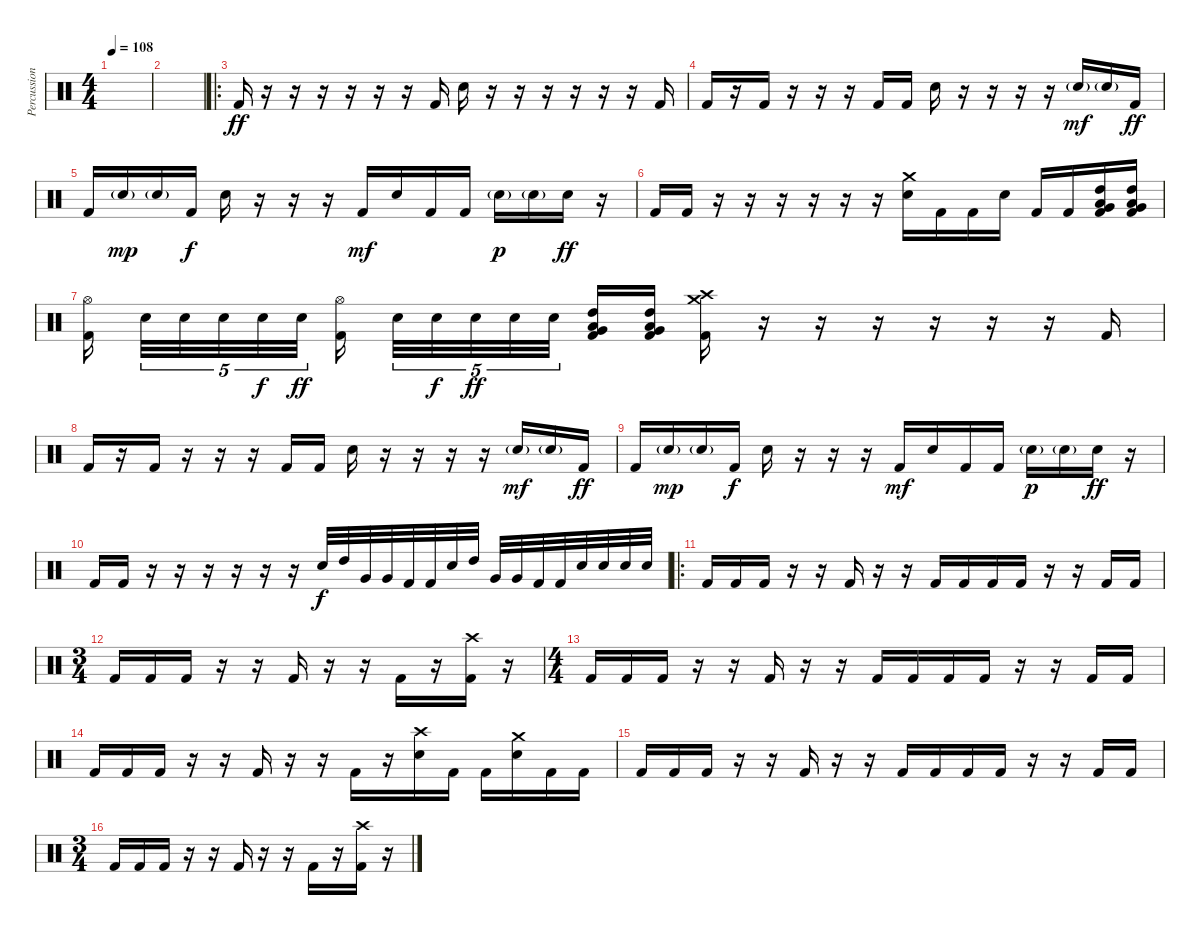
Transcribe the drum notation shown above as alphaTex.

\track ("Percussion" "Percussion") {instrument percussion}
\staff {score}
\articulation defaults
\ts (4 4)
\tempo 108
\clef neutral
\ks c
|
|
\ro "Kick (hit) 2".16{dy ff}
r.16 r.16 r.16 r.16 r.16 r.16 "Kick (hit) 2".16 "Electric Snare (hit)".16 r.16 r.16 r.16 r.16 r.16 r.16 "Kick (hit) 2".16 |
"Kick (hit) 2".16 r.16 "Kick (hit) 2".16 r.16 r.16 r.16 "Kick (hit) 2".16 "Kick (hit) 2".16 "Electric Snare (hit)".16 r.16 r.16 r.16 r.16 "Electric Snare (hit)"{g}.16{dy mf} "Electric Snare (hit)"{g}.16 "Kick (hit) 2".16{dy ff} |
"Kick (hit) 2".16 "Electric Snare (hit)"{g}.16{dy mp} "Electric Snare (hit)"{g}.16 "Kick (hit) 2".16{dy f} "Electric Snare (hit)".16 r.16 r.16 r.16 "Kick (hit) 2".16{dy mf} "Electric Snare (hit)".16 "Kick (hit) 2".16 "Kick (hit) 2".16 "Electric Snare (hit)"{g}.16{dy p} "Electric Snare (hit)"{g}.16 "Electric Snare (hit)".16{dy ff} r.16 |
"Kick (hit) 2".16 "Kick (hit) 2".16 r.16 r.16 r.16 r.16 r.16 r.16 ("Crash medium (hit)" "Electric Snare (hit)").16 "Kick (hit) 2".16 "Kick (hit) 2".16 "Electric Snare (hit)".16 "Kick (hit) 2".16 "Kick (hit) 2".16 ("High Tom (hit)" "Low Tom (hit)" "Very Low Tom (hit)" "Kick (hit) 2").16 ("High Tom (hit)" "Low Tom (hit)" "Very Low Tom (hit)" "Kick (hit) 2").16 |
("Hi-Hat (open)" "Kick (hit) 2").16{beam splitsecondary} "Electric Snare (hit)".32{tu (5 4)} "Electric Snare (hit)".32{tu (5 4)} "Electric Snare (hit)".32{tu (5 4)} "Electric Snare (hit)".32{tu (5 4) dy f} "Electric Snare (hit)".32{tu (5 4) dy ff beam splitsecondary} ("Hi-Hat (open)" "Kick (hit) 2").16 "Electric Snare (hit)".32{tu (5 4)} "Electric Snare (hit)".32{tu (5 4) dy f} "Electric Snare (hit)".32{tu (5 4) dy ff} "Electric Snare (hit)".32{tu (5 4)} "Electric Snare (hit)".32{tu (5 4) beam splitsecondary} ("High Tom (hit)" "Very Low Tom (hit)" "Low Tom (hit)" "Kick (hit) 2").16 ("High Tom (hit)" "Very Low Tom (hit)" "Low Tom (hit)" "Kick (hit) 2").16 ("Crash medium (hit)" "Crash high (hit)" "Kick (hit) 2").16 r.16 r.16 r.16 r.16 r.16 r.16 "Kick (hit) 2".16 |
"Kick (hit) 2".16 r.16 "Kick (hit) 2".16 r.16 r.16 r.16 "Kick (hit) 2".16 "Kick (hit) 2".16 "Electric Snare (hit)".16 r.16 r.16 r.16 r.16 "Electric Snare (hit)"{g}.16{dy mf} "Electric Snare (hit)"{g}.16 "Kick (hit) 2".16{dy ff} |
"Kick (hit) 2".16 "Electric Snare (hit)"{g}.16{dy mp} "Electric Snare (hit)"{g}.16 "Kick (hit) 2".16{dy f} "Electric Snare (hit)".16 r.16 r.16 r.16 "Kick (hit) 2".16{dy mf} "Electric Snare (hit)".16 "Kick (hit) 2".16 "Kick (hit) 2".16 "Electric Snare (hit)"{g}.16{dy p} "Electric Snare (hit)"{g}.16 "Electric Snare (hit)".16{dy ff} r.16 |
"Kick (hit) 2".16 "Kick (hit) 2".16 r.16 r.16 r.16 r.16 r.16 r.16 "Electric Snare (hit)".32{dy f} "High Tom (hit)".32 "Very Low Tom (hit)".32 "Very Low Tom (hit)".32 "Kick (hit) 2".32 "Kick (hit) 2".32 "Electric Snare (hit)".32 "High Tom (hit)".32 "Very Low Tom (hit)".32 "Very Low Tom (hit)".32 "Kick (hit) 2".32 "Kick (hit) 2".32 "Electric Snare (hit)".32 "Electric Snare (hit)".32 "Electric Snare (hit)".32 "Electric Snare (hit)".32 |
\ro "Kick (hit) 2".16 "Kick (hit) 2".16 "Kick (hit) 2".16
r.16 r.16 "Kick (hit) 2".16 r.16 r.16 "Kick (hit) 2".16 "Kick (hit) 2".16 "Kick (hit) 2".16 "Kick (hit) 2".16 r.16 r.16 "Kick (hit) 2".16 "Kick (hit) 2".16 |
\ts (3 4)
"Kick (hit) 2".16 "Kick (hit) 2".16 "Kick (hit) 2".16 r.16 r.16 "Kick (hit) 2".16 r.16 r.16 "Kick (hit) 2".16 r.16 ("Crash high (hit)" "Kick (hit) 2").16 r.16 |
\ts (4 4)
"Kick (hit) 2".16 "Kick (hit) 2".16 "Kick (hit) 2".16 r.16 r.16 "Kick (hit) 2".16 r.16 r.16 "Kick (hit) 2".16 "Kick (hit) 2".16 "Kick (hit) 2".16 "Kick (hit) 2".16 r.16 r.16 "Kick (hit) 2".16 "Kick (hit) 2".16 |
"Kick (hit) 2".16 "Kick (hit) 2".16 "Kick (hit) 2".16 r.16 r.16 "Kick (hit) 2".16 r.16 r.16 "Kick (hit) 2".16 r.16 ("Crash high (hit)" "Electric Snare (hit)").16 "Kick (hit) 2".16 "Kick (hit) 2".16 ("Crash medium (hit)" "Electric Snare (hit)").16 "Kick (hit) 2".16 "Kick (hit) 2".16 |
"Kick (hit) 2".16 "Kick (hit) 2".16 "Kick (hit) 2".16 r.16 r.16 "Kick (hit) 2".16 r.16 r.16 "Kick (hit) 2".16 "Kick (hit) 2".16 "Kick (hit) 2".16 "Kick (hit) 2".16 r.16 r.16 "Kick (hit) 2".16 "Kick (hit) 2".16 |
\ts (3 4)
"Kick (hit) 2".16 "Kick (hit) 2".16 "Kick (hit) 2".16 r.16 r.16 "Kick (hit) 2".16 r.16 r.16 "Kick (hit) 2".16 r.16 ("Crash high (hit)" "Kick (hit) 2").16 r.16
